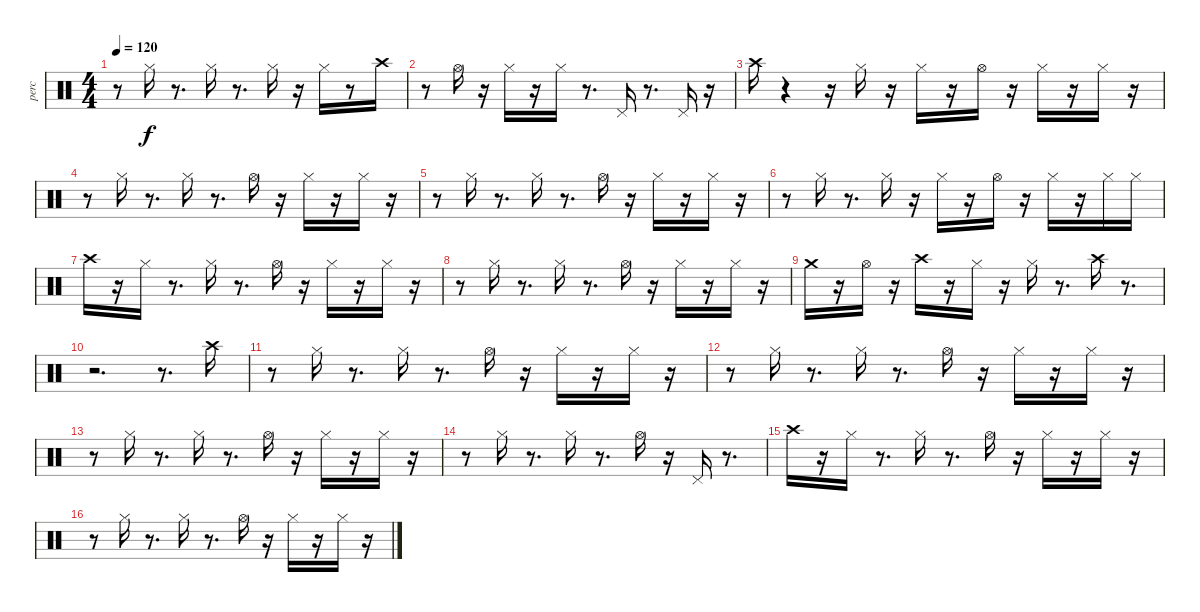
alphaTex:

\track ("perc" "perc") {instrument percussion}
\staff {score}
\articulation defaults
\ts (4 4)
\tempo 120
\clef neutral
\ks c
r.8{dy f} "Hi-Hat (closed)".16 r.8{d} "Hi-Hat (closed)".16 r.8{d} "Hi-Hat (closed)".16 r.16 "Hi-Hat (closed)".16 r.8 "Crash high (hit)".16 |
r.8 "Hi-Hat (open)".16 r.16 "Hi-Hat (closed)".16 r.16 "Hi-Hat (closed)".16 r.8{d} "Pedal Hi-Hat (hit)".16 r.8{d} "Pedal Hi-Hat (hit)".16 r.16 |
"Crash high (hit)".16 r.4 r.16 "Hi-Hat (closed)".16 r.16 "Hi-Hat (closed)".16 r.16 "Hi-Hat (open)".16 r.16 "Hi-Hat (closed)".16 r.16 "Hi-Hat (closed)".16 r.16 |
r.8 "Hi-Hat (closed)".16 r.8{d} "Hi-Hat (closed)".16 r.8{d} "Hi-Hat (open)".16 r.16 "Hi-Hat (closed)".16 r.16 "Hi-Hat (closed)".16 r.16 |
r.8 "Hi-Hat (closed)".16 r.8{d} "Hi-Hat (closed)".16 r.8{d} "Hi-Hat (open)".16 r.16 "Hi-Hat (closed)".16 r.16 "Hi-Hat (closed)".16 r.16 |
r.8 "Hi-Hat (closed)".16 r.8{d} "Hi-Hat (closed)".16 r.16 "Hi-Hat (closed)".16 r.16 "Hi-Hat (open)".16 r.16 "Hi-Hat (closed)".16 r.16 "Hi-Hat (closed)".16 "Hi-Hat (closed)".16 |
"Crash high (hit)".16 r.16 "Hi-Hat (closed)".16 r.8{d} "Hi-Hat (closed)".16 r.8{d} "Hi-Hat (open)".16 r.16 "Hi-Hat (closed)".16 r.16 "Hi-Hat (closed)".16 r.16 |
r.8 "Hi-Hat (closed)".16 r.8{d} "Hi-Hat (closed)".16 r.8{d} "Hi-Hat (open)".16 r.16 "Hi-Hat (closed)".16 r.16 "Hi-Hat (closed)".16 r.16 |
"Crash medium (hit)".16 r.16 "Hi-Hat (open)".16 r.16 "Crash high (hit)".16 r.16 "Hi-Hat (closed)".16 r.16 "Hi-Hat (closed)".16 r.8{d} "Crash high (hit)".16 r.8{d} |
r.2{d} r.8{d} "Crash high (hit)".16 |
r.8 "Hi-Hat (closed)".16 r.8{d} "Hi-Hat (closed)".16 r.8{d} "Hi-Hat (open)".16 r.16 "Hi-Hat (closed)".16 r.16 "Hi-Hat (closed)".16 r.16 |
r.8 "Hi-Hat (closed)".16 r.8{d} "Hi-Hat (closed)".16 r.8{d} "Hi-Hat (open)".16 r.16 "Hi-Hat (closed)".16 r.16 "Hi-Hat (closed)".16 r.16 |
r.8 "Hi-Hat (closed)".16 r.8{d} "Hi-Hat (closed)".16 r.8{d} "Hi-Hat (open)".16 r.16 "Hi-Hat (closed)".16 r.16 "Hi-Hat (closed)".16 r.16 |
r.8 "Hi-Hat (closed)".16 r.8{d} "Hi-Hat (closed)".16 r.8{d} "Hi-Hat (open)".16 r.16 "Pedal Hi-Hat (hit)".16 r.8{d} |
"Crash high (hit)".16 r.16 "Hi-Hat (closed)".16 r.8{d} "Hi-Hat (closed)".16 r.8{d} "Hi-Hat (open)".16 r.16 "Hi-Hat (closed)".16 r.16 "Hi-Hat (closed)".16 r.16 |
r.8 "Hi-Hat (closed)".16 r.8{d} "Hi-Hat (closed)".16 r.8{d} "Hi-Hat (open)".16 r.16 "Hi-Hat (closed)".16 r.16 "Hi-Hat (closed)".16 r.16
